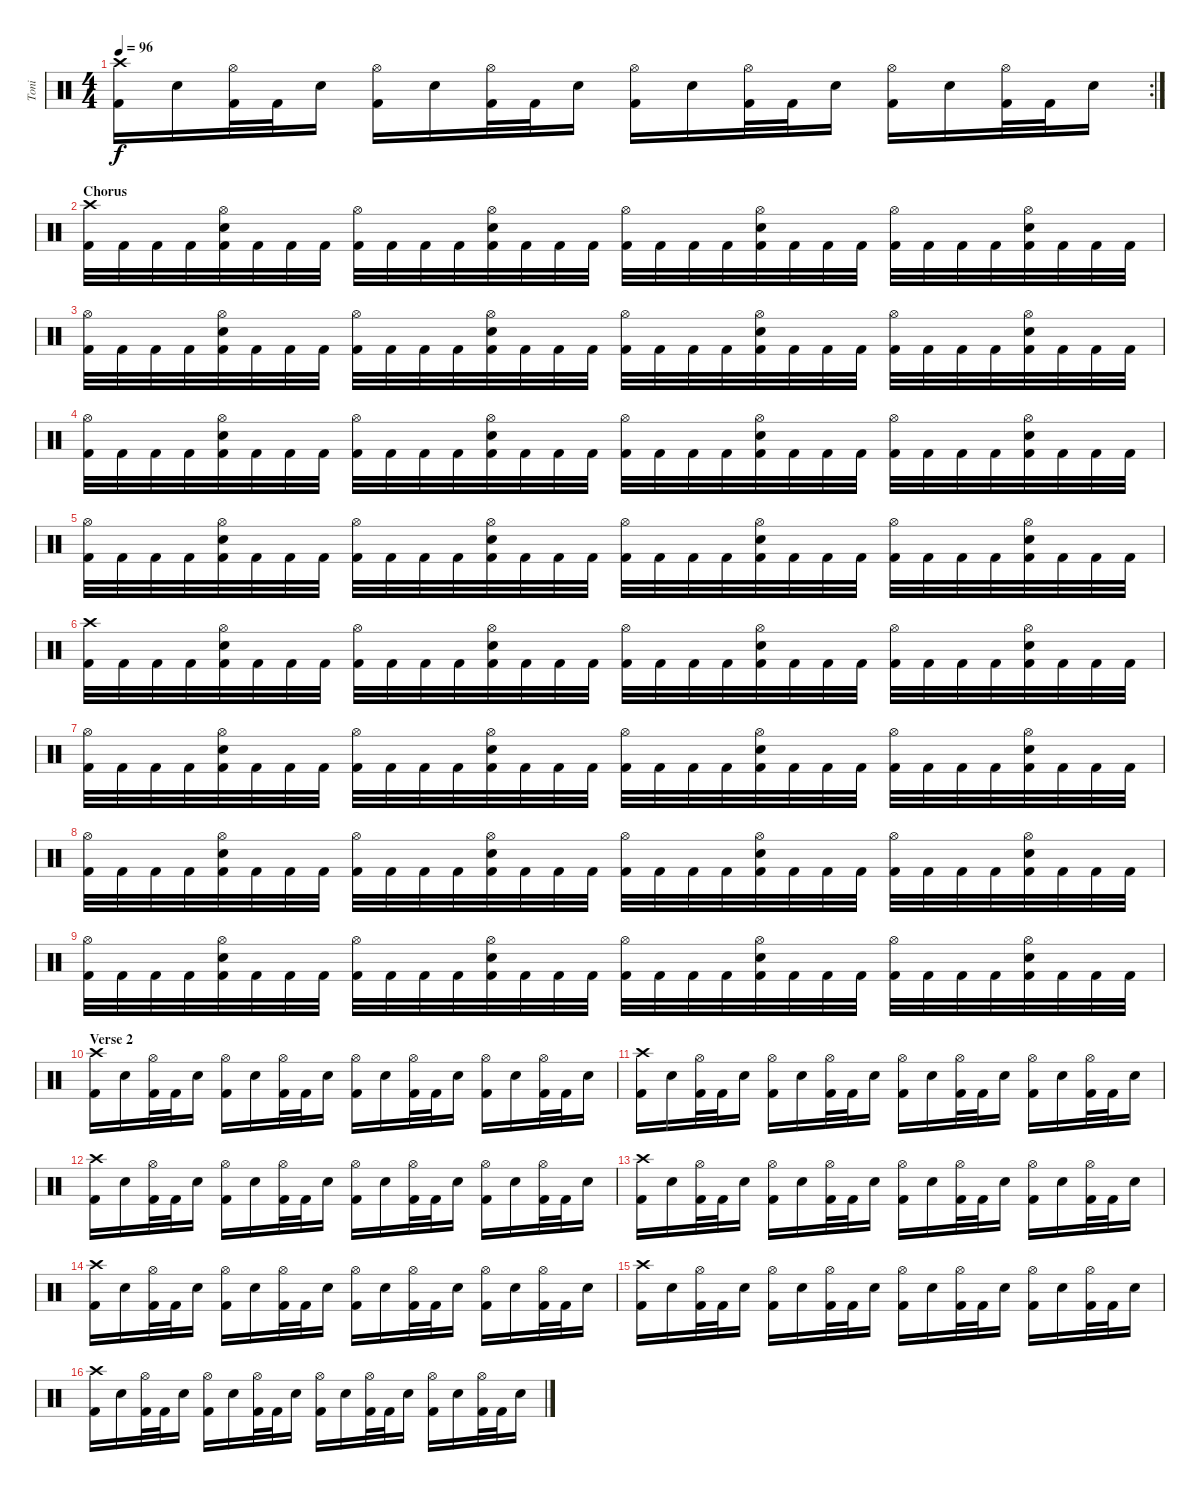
\track ("Toni" "Toni") {instrument percussion}
\staff {score}
\articulation defaults
\rc 2
\ts (4 4)
\tempo 96
\clef neutral
\ks c
("Crash high (hit)" "Kick (hit) 2").16{dy f} "Electric Snare (hit)".16 ("Hi-Hat (open)" "Kick (hit) 2").32 "Kick (hit) 2".32 "Electric Snare (hit)".16 ("Hi-Hat (open)" "Kick (hit) 2").16 "Electric Snare (hit)".16 ("Hi-Hat (open)" "Kick (hit) 2").32 "Kick (hit) 2".32 "Electric Snare (hit)".16 ("Hi-Hat (open)" "Kick (hit) 2").16 "Electric Snare (hit)".16 ("Hi-Hat (open)" "Kick (hit) 2").32 "Kick (hit) 2".32 "Electric Snare (hit)".16 ("Hi-Hat (open)" "Kick (hit) 2").16 "Electric Snare (hit)".16 ("Hi-Hat (open)" "Kick (hit) 2").32 "Kick (hit) 2".32 "Electric Snare (hit)".16 |
\section ("" "Chorus")
("Crash high (hit)" "Kick (hit) 2").32 "Kick (hit) 2".32 "Kick (hit) 2".32 "Kick (hit) 2".32 ("Hi-Hat (open)" "Electric Snare (hit)" "Kick (hit) 2").32 "Kick (hit) 2".32 "Kick (hit) 2".32 "Kick (hit) 2".32 ("Hi-Hat (open)" "Kick (hit) 2").32 "Kick (hit) 2".32 "Kick (hit) 2".32 "Kick (hit) 2".32 ("Hi-Hat (open)" "Electric Snare (hit)" "Kick (hit) 2").32 "Kick (hit) 2".32 "Kick (hit) 2".32 "Kick (hit) 2".32 ("Hi-Hat (open)" "Kick (hit) 2").32 "Kick (hit) 2".32 "Kick (hit) 2".32 "Kick (hit) 2".32 ("Hi-Hat (open)" "Electric Snare (hit)" "Kick (hit) 2").32 "Kick (hit) 2".32 "Kick (hit) 2".32 "Kick (hit) 2".32 ("Hi-Hat (open)" "Kick (hit) 2").32 "Kick (hit) 2".32 "Kick (hit) 2".32 "Kick (hit) 2".32 ("Hi-Hat (open)" "Electric Snare (hit)" "Kick (hit) 2").32 "Kick (hit) 2".32 "Kick (hit) 2".32 "Kick (hit) 2".32 |
("Hi-Hat (open)" "Kick (hit) 2").32 "Kick (hit) 2".32 "Kick (hit) 2".32 "Kick (hit) 2".32 ("Hi-Hat (open)" "Electric Snare (hit)" "Kick (hit) 2").32 "Kick (hit) 2".32 "Kick (hit) 2".32 "Kick (hit) 2".32 ("Hi-Hat (open)" "Kick (hit) 2").32 "Kick (hit) 2".32 "Kick (hit) 2".32 "Kick (hit) 2".32 ("Hi-Hat (open)" "Electric Snare (hit)" "Kick (hit) 2").32 "Kick (hit) 2".32 "Kick (hit) 2".32 "Kick (hit) 2".32 ("Hi-Hat (open)" "Kick (hit) 2").32 "Kick (hit) 2".32 "Kick (hit) 2".32 "Kick (hit) 2".32 ("Hi-Hat (open)" "Electric Snare (hit)" "Kick (hit) 2").32 "Kick (hit) 2".32 "Kick (hit) 2".32 "Kick (hit) 2".32 ("Hi-Hat (open)" "Kick (hit) 2").32 "Kick (hit) 2".32 "Kick (hit) 2".32 "Kick (hit) 2".32 ("Hi-Hat (open)" "Electric Snare (hit)" "Kick (hit) 2").32 "Kick (hit) 2".32 "Kick (hit) 2".32 "Kick (hit) 2".32 |
("Hi-Hat (open)" "Kick (hit) 2").32 "Kick (hit) 2".32 "Kick (hit) 2".32 "Kick (hit) 2".32 ("Hi-Hat (open)" "Electric Snare (hit)" "Kick (hit) 2").32 "Kick (hit) 2".32 "Kick (hit) 2".32 "Kick (hit) 2".32 ("Hi-Hat (open)" "Kick (hit) 2").32 "Kick (hit) 2".32 "Kick (hit) 2".32 "Kick (hit) 2".32 ("Hi-Hat (open)" "Electric Snare (hit)" "Kick (hit) 2").32 "Kick (hit) 2".32 "Kick (hit) 2".32 "Kick (hit) 2".32 ("Hi-Hat (open)" "Kick (hit) 2").32 "Kick (hit) 2".32 "Kick (hit) 2".32 "Kick (hit) 2".32 ("Hi-Hat (open)" "Electric Snare (hit)" "Kick (hit) 2").32 "Kick (hit) 2".32 "Kick (hit) 2".32 "Kick (hit) 2".32 ("Hi-Hat (open)" "Kick (hit) 2").32 "Kick (hit) 2".32 "Kick (hit) 2".32 "Kick (hit) 2".32 ("Hi-Hat (open)" "Electric Snare (hit)" "Kick (hit) 2").32 "Kick (hit) 2".32 "Kick (hit) 2".32 "Kick (hit) 2".32 |
("Hi-Hat (open)" "Kick (hit) 2").32 "Kick (hit) 2".32 "Kick (hit) 2".32 "Kick (hit) 2".32 ("Hi-Hat (open)" "Electric Snare (hit)" "Kick (hit) 2").32 "Kick (hit) 2".32 "Kick (hit) 2".32 "Kick (hit) 2".32 ("Hi-Hat (open)" "Kick (hit) 2").32 "Kick (hit) 2".32 "Kick (hit) 2".32 "Kick (hit) 2".32 ("Hi-Hat (open)" "Electric Snare (hit)" "Kick (hit) 2").32 "Kick (hit) 2".32 "Kick (hit) 2".32 "Kick (hit) 2".32 ("Hi-Hat (open)" "Kick (hit) 2").32 "Kick (hit) 2".32 "Kick (hit) 2".32 "Kick (hit) 2".32 ("Hi-Hat (open)" "Electric Snare (hit)" "Kick (hit) 2").32 "Kick (hit) 2".32 "Kick (hit) 2".32 "Kick (hit) 2".32 ("Hi-Hat (open)" "Kick (hit) 2").32 "Kick (hit) 2".32 "Kick (hit) 2".32 "Kick (hit) 2".32 ("Hi-Hat (open)" "Electric Snare (hit)" "Kick (hit) 2").32 "Kick (hit) 2".32 "Kick (hit) 2".32 "Kick (hit) 2".32 |
("Crash high (hit)" "Kick (hit) 2").32 "Kick (hit) 2".32 "Kick (hit) 2".32 "Kick (hit) 2".32 ("Hi-Hat (open)" "Electric Snare (hit)" "Kick (hit) 2").32 "Kick (hit) 2".32 "Kick (hit) 2".32 "Kick (hit) 2".32 ("Hi-Hat (open)" "Kick (hit) 2").32 "Kick (hit) 2".32 "Kick (hit) 2".32 "Kick (hit) 2".32 ("Hi-Hat (open)" "Electric Snare (hit)" "Kick (hit) 2").32 "Kick (hit) 2".32 "Kick (hit) 2".32 "Kick (hit) 2".32 ("Hi-Hat (open)" "Kick (hit) 2").32 "Kick (hit) 2".32 "Kick (hit) 2".32 "Kick (hit) 2".32 ("Hi-Hat (open)" "Electric Snare (hit)" "Kick (hit) 2").32 "Kick (hit) 2".32 "Kick (hit) 2".32 "Kick (hit) 2".32 ("Hi-Hat (open)" "Kick (hit) 2").32 "Kick (hit) 2".32 "Kick (hit) 2".32 "Kick (hit) 2".32 ("Hi-Hat (open)" "Electric Snare (hit)" "Kick (hit) 2").32 "Kick (hit) 2".32 "Kick (hit) 2".32 "Kick (hit) 2".32 |
("Hi-Hat (open)" "Kick (hit) 2").32 "Kick (hit) 2".32 "Kick (hit) 2".32 "Kick (hit) 2".32 ("Hi-Hat (open)" "Electric Snare (hit)" "Kick (hit) 2").32 "Kick (hit) 2".32 "Kick (hit) 2".32 "Kick (hit) 2".32 ("Hi-Hat (open)" "Kick (hit) 2").32 "Kick (hit) 2".32 "Kick (hit) 2".32 "Kick (hit) 2".32 ("Hi-Hat (open)" "Electric Snare (hit)" "Kick (hit) 2").32 "Kick (hit) 2".32 "Kick (hit) 2".32 "Kick (hit) 2".32 ("Hi-Hat (open)" "Kick (hit) 2").32 "Kick (hit) 2".32 "Kick (hit) 2".32 "Kick (hit) 2".32 ("Hi-Hat (open)" "Electric Snare (hit)" "Kick (hit) 2").32 "Kick (hit) 2".32 "Kick (hit) 2".32 "Kick (hit) 2".32 ("Hi-Hat (open)" "Kick (hit) 2").32 "Kick (hit) 2".32 "Kick (hit) 2".32 "Kick (hit) 2".32 ("Hi-Hat (open)" "Electric Snare (hit)" "Kick (hit) 2").32 "Kick (hit) 2".32 "Kick (hit) 2".32 "Kick (hit) 2".32 |
("Hi-Hat (open)" "Kick (hit) 2").32 "Kick (hit) 2".32 "Kick (hit) 2".32 "Kick (hit) 2".32 ("Hi-Hat (open)" "Electric Snare (hit)" "Kick (hit) 2").32 "Kick (hit) 2".32 "Kick (hit) 2".32 "Kick (hit) 2".32 ("Hi-Hat (open)" "Kick (hit) 2").32 "Kick (hit) 2".32 "Kick (hit) 2".32 "Kick (hit) 2".32 ("Hi-Hat (open)" "Electric Snare (hit)" "Kick (hit) 2").32 "Kick (hit) 2".32 "Kick (hit) 2".32 "Kick (hit) 2".32 ("Hi-Hat (open)" "Kick (hit) 2").32 "Kick (hit) 2".32 "Kick (hit) 2".32 "Kick (hit) 2".32 ("Hi-Hat (open)" "Electric Snare (hit)" "Kick (hit) 2").32 "Kick (hit) 2".32 "Kick (hit) 2".32 "Kick (hit) 2".32 ("Hi-Hat (open)" "Kick (hit) 2").32 "Kick (hit) 2".32 "Kick (hit) 2".32 "Kick (hit) 2".32 ("Hi-Hat (open)" "Electric Snare (hit)" "Kick (hit) 2").32 "Kick (hit) 2".32 "Kick (hit) 2".32 "Kick (hit) 2".32 |
("Hi-Hat (open)" "Kick (hit) 2").32 "Kick (hit) 2".32 "Kick (hit) 2".32 "Kick (hit) 2".32 ("Hi-Hat (open)" "Electric Snare (hit)" "Kick (hit) 2").32 "Kick (hit) 2".32 "Kick (hit) 2".32 "Kick (hit) 2".32 ("Hi-Hat (open)" "Kick (hit) 2").32 "Kick (hit) 2".32 "Kick (hit) 2".32 "Kick (hit) 2".32 ("Hi-Hat (open)" "Electric Snare (hit)" "Kick (hit) 2").32 "Kick (hit) 2".32 "Kick (hit) 2".32 "Kick (hit) 2".32 ("Hi-Hat (open)" "Kick (hit) 2").32 "Kick (hit) 2".32 "Kick (hit) 2".32 "Kick (hit) 2".32 ("Hi-Hat (open)" "Electric Snare (hit)" "Kick (hit) 2").32 "Kick (hit) 2".32 "Kick (hit) 2".32 "Kick (hit) 2".32 ("Hi-Hat (open)" "Kick (hit) 2").32 "Kick (hit) 2".32 "Kick (hit) 2".32 "Kick (hit) 2".32 ("Hi-Hat (open)" "Electric Snare (hit)" "Kick (hit) 2").32 "Kick (hit) 2".32 "Kick (hit) 2".32 "Kick (hit) 2".32 |
\section ("" "Verse 2")
("Crash high (hit)" "Kick (hit) 2").16 "Electric Snare (hit)".16 ("Hi-Hat (open)" "Kick (hit) 2").32 "Kick (hit) 2".32 "Electric Snare (hit)".16 ("Hi-Hat (open)" "Kick (hit) 2").16 "Electric Snare (hit)".16 ("Hi-Hat (open)" "Kick (hit) 2").32 "Kick (hit) 2".32 "Electric Snare (hit)".16 ("Hi-Hat (open)" "Kick (hit) 2").16 "Electric Snare (hit)".16 ("Hi-Hat (open)" "Kick (hit) 2").32 "Kick (hit) 2".32 "Electric Snare (hit)".16 ("Hi-Hat (open)" "Kick (hit) 2").16 "Electric Snare (hit)".16 ("Hi-Hat (open)" "Kick (hit) 2").32 "Kick (hit) 2".32 "Electric Snare (hit)".16 |
("Crash high (hit)" "Kick (hit) 2").16 "Electric Snare (hit)".16 ("Hi-Hat (open)" "Kick (hit) 2").32 "Kick (hit) 2".32 "Electric Snare (hit)".16 ("Hi-Hat (open)" "Kick (hit) 2").16 "Electric Snare (hit)".16 ("Hi-Hat (open)" "Kick (hit) 2").32 "Kick (hit) 2".32 "Electric Snare (hit)".16 ("Hi-Hat (open)" "Kick (hit) 2").16 "Electric Snare (hit)".16 ("Hi-Hat (open)" "Kick (hit) 2").32 "Kick (hit) 2".32 "Electric Snare (hit)".16 ("Hi-Hat (open)" "Kick (hit) 2").16 "Electric Snare (hit)".16 ("Hi-Hat (open)" "Kick (hit) 2").32 "Kick (hit) 2".32 "Electric Snare (hit)".16 |
("Crash high (hit)" "Kick (hit) 2").16 "Electric Snare (hit)".16 ("Hi-Hat (open)" "Kick (hit) 2").32 "Kick (hit) 2".32 "Electric Snare (hit)".16 ("Hi-Hat (open)" "Kick (hit) 2").16 "Electric Snare (hit)".16 ("Hi-Hat (open)" "Kick (hit) 2").32 "Kick (hit) 2".32 "Electric Snare (hit)".16 ("Hi-Hat (open)" "Kick (hit) 2").16 "Electric Snare (hit)".16 ("Hi-Hat (open)" "Kick (hit) 2").32 "Kick (hit) 2".32 "Electric Snare (hit)".16 ("Hi-Hat (open)" "Kick (hit) 2").16 "Electric Snare (hit)".16 ("Hi-Hat (open)" "Kick (hit) 2").32 "Kick (hit) 2".32 "Electric Snare (hit)".16 |
("Crash high (hit)" "Kick (hit) 2").16 "Electric Snare (hit)".16 ("Hi-Hat (open)" "Kick (hit) 2").32 "Kick (hit) 2".32 "Electric Snare (hit)".16 ("Hi-Hat (open)" "Kick (hit) 2").16 "Electric Snare (hit)".16 ("Hi-Hat (open)" "Kick (hit) 2").32 "Kick (hit) 2".32 "Electric Snare (hit)".16 ("Hi-Hat (open)" "Kick (hit) 2").16 "Electric Snare (hit)".16 ("Hi-Hat (open)" "Kick (hit) 2").32 "Kick (hit) 2".32 "Electric Snare (hit)".16 ("Hi-Hat (open)" "Kick (hit) 2").16 "Electric Snare (hit)".16 ("Hi-Hat (open)" "Kick (hit) 2").32 "Kick (hit) 2".32 "Electric Snare (hit)".16 |
("Crash high (hit)" "Kick (hit) 2").16 "Electric Snare (hit)".16 ("Hi-Hat (open)" "Kick (hit) 2").32 "Kick (hit) 2".32 "Electric Snare (hit)".16 ("Hi-Hat (open)" "Kick (hit) 2").16 "Electric Snare (hit)".16 ("Hi-Hat (open)" "Kick (hit) 2").32 "Kick (hit) 2".32 "Electric Snare (hit)".16 ("Hi-Hat (open)" "Kick (hit) 2").16 "Electric Snare (hit)".16 ("Hi-Hat (open)" "Kick (hit) 2").32 "Kick (hit) 2".32 "Electric Snare (hit)".16 ("Hi-Hat (open)" "Kick (hit) 2").16 "Electric Snare (hit)".16 ("Hi-Hat (open)" "Kick (hit) 2").32 "Kick (hit) 2".32 "Electric Snare (hit)".16 |
("Crash high (hit)" "Kick (hit) 2").16 "Electric Snare (hit)".16 ("Hi-Hat (open)" "Kick (hit) 2").32 "Kick (hit) 2".32 "Electric Snare (hit)".16 ("Hi-Hat (open)" "Kick (hit) 2").16 "Electric Snare (hit)".16 ("Hi-Hat (open)" "Kick (hit) 2").32 "Kick (hit) 2".32 "Electric Snare (hit)".16 ("Hi-Hat (open)" "Kick (hit) 2").16 "Electric Snare (hit)".16 ("Hi-Hat (open)" "Kick (hit) 2").32 "Kick (hit) 2".32 "Electric Snare (hit)".16 ("Hi-Hat (open)" "Kick (hit) 2").16 "Electric Snare (hit)".16 ("Hi-Hat (open)" "Kick (hit) 2").32 "Kick (hit) 2".32 "Electric Snare (hit)".16 |
("Crash high (hit)" "Kick (hit) 2").16 "Electric Snare (hit)".16 ("Hi-Hat (open)" "Kick (hit) 2").32 "Kick (hit) 2".32 "Electric Snare (hit)".16 ("Hi-Hat (open)" "Kick (hit) 2").16 "Electric Snare (hit)".16 ("Hi-Hat (open)" "Kick (hit) 2").32 "Kick (hit) 2".32 "Electric Snare (hit)".16 ("Hi-Hat (open)" "Kick (hit) 2").16 "Electric Snare (hit)".16 ("Hi-Hat (open)" "Kick (hit) 2").32 "Kick (hit) 2".32 "Electric Snare (hit)".16 ("Hi-Hat (open)" "Kick (hit) 2").16 "Electric Snare (hit)".16 ("Hi-Hat (open)" "Kick (hit) 2").32 "Kick (hit) 2".32 "Electric Snare (hit)".16
